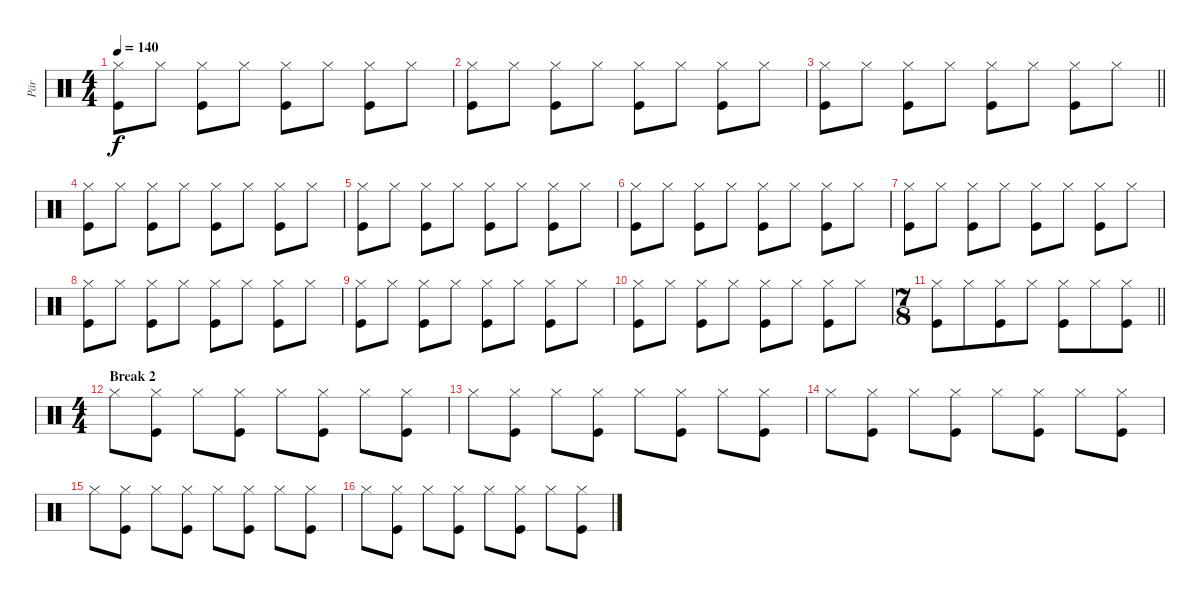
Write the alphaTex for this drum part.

\track ("Pär" "Pär") {instrument percussion}
\staff {score}
\articulation defaults
\ts (4 4)
\tempo 140
\clef neutral
\ks c
("Hi-Hat (closed)" "Kick (hit)").8{dy f} "Hi-Hat (closed)".8 ("Hi-Hat (closed)" "Kick (hit)").8 "Hi-Hat (closed)".8 ("Hi-Hat (closed)" "Kick (hit)").8 "Hi-Hat (closed)".8 ("Hi-Hat (closed)" "Kick (hit)").8 "Hi-Hat (closed)".8 |
("Hi-Hat (closed)" "Kick (hit)").8 "Hi-Hat (closed)".8 ("Hi-Hat (closed)" "Kick (hit)").8 "Hi-Hat (closed)".8 ("Hi-Hat (closed)" "Kick (hit)").8 "Hi-Hat (closed)".8 ("Hi-Hat (closed)" "Kick (hit)").8 "Hi-Hat (closed)".8 |
\barLineRight lightlight
("Hi-Hat (closed)" "Kick (hit)").8 "Hi-Hat (closed)".8 ("Hi-Hat (closed)" "Kick (hit)").8 "Hi-Hat (closed)".8 ("Hi-Hat (closed)" "Kick (hit)").8 "Hi-Hat (closed)".8 ("Hi-Hat (closed)" "Kick (hit)").8 "Hi-Hat (closed)".8 |
("Hi-Hat (closed)" "Kick (hit)").8 "Hi-Hat (closed)".8 ("Hi-Hat (closed)" "Kick (hit)").8 "Hi-Hat (closed)".8 ("Hi-Hat (closed)" "Kick (hit)").8 "Hi-Hat (closed)".8 ("Hi-Hat (closed)" "Kick (hit)").8 "Hi-Hat (closed)".8 |
("Hi-Hat (closed)" "Kick (hit)").8 "Hi-Hat (closed)".8 ("Hi-Hat (closed)" "Kick (hit)").8 "Hi-Hat (closed)".8 ("Hi-Hat (closed)" "Kick (hit)").8 "Hi-Hat (closed)".8 ("Hi-Hat (closed)" "Kick (hit)").8 "Hi-Hat (closed)".8 |
("Hi-Hat (closed)" "Kick (hit)").8 "Hi-Hat (closed)".8 ("Hi-Hat (closed)" "Kick (hit)").8 "Hi-Hat (closed)".8 ("Hi-Hat (closed)" "Kick (hit)").8 "Hi-Hat (closed)".8 ("Hi-Hat (closed)" "Kick (hit)").8 "Hi-Hat (closed)".8 |
("Hi-Hat (closed)" "Kick (hit)").8 "Hi-Hat (closed)".8 ("Hi-Hat (closed)" "Kick (hit)").8 "Hi-Hat (closed)".8 ("Hi-Hat (closed)" "Kick (hit)").8 "Hi-Hat (closed)".8 ("Hi-Hat (closed)" "Kick (hit)").8 "Hi-Hat (closed)".8 |
("Hi-Hat (closed)" "Kick (hit)").8 "Hi-Hat (closed)".8 ("Hi-Hat (closed)" "Kick (hit)").8 "Hi-Hat (closed)".8 ("Hi-Hat (closed)" "Kick (hit)").8 "Hi-Hat (closed)".8 ("Hi-Hat (closed)" "Kick (hit)").8 "Hi-Hat (closed)".8 |
("Hi-Hat (closed)" "Kick (hit)").8 "Hi-Hat (closed)".8 ("Hi-Hat (closed)" "Kick (hit)").8 "Hi-Hat (closed)".8 ("Hi-Hat (closed)" "Kick (hit)").8 "Hi-Hat (closed)".8 ("Hi-Hat (closed)" "Kick (hit)").8 "Hi-Hat (closed)".8 |
("Hi-Hat (closed)" "Kick (hit)").8 "Hi-Hat (closed)".8 ("Hi-Hat (closed)" "Kick (hit)").8 "Hi-Hat (closed)".8 ("Hi-Hat (closed)" "Kick (hit)").8 "Hi-Hat (closed)".8 ("Hi-Hat (closed)" "Kick (hit)").8 "Hi-Hat (closed)".8 |
\ts (7 8)
\barLineRight lightlight
("Hi-Hat (closed)" "Kick (hit)").8 "Hi-Hat (closed)".8 ("Hi-Hat (closed)" "Kick (hit)").8 "Hi-Hat (closed)".8 ("Hi-Hat (closed)" "Kick (hit)").8 "Hi-Hat (closed)".8 ("Hi-Hat (closed)" "Kick (hit)").8 |
\ts (4 4)
\section ("" "Break 2")
"Hi-Hat (closed)".8 ("Hi-Hat (closed)" "Kick (hit)").8 "Hi-Hat (closed)".8 ("Hi-Hat (closed)" "Kick (hit)").8 "Hi-Hat (closed)".8 ("Hi-Hat (closed)" "Kick (hit)").8 "Hi-Hat (closed)".8 ("Hi-Hat (closed)" "Kick (hit)").8 |
"Hi-Hat (closed)".8 ("Hi-Hat (closed)" "Kick (hit)").8 "Hi-Hat (closed)".8 ("Hi-Hat (closed)" "Kick (hit)").8 "Hi-Hat (closed)".8 ("Hi-Hat (closed)" "Kick (hit)").8 "Hi-Hat (closed)".8 ("Hi-Hat (closed)" "Kick (hit)").8 |
"Hi-Hat (closed)".8 ("Hi-Hat (closed)" "Kick (hit)").8 "Hi-Hat (closed)".8 ("Hi-Hat (closed)" "Kick (hit)").8 "Hi-Hat (closed)".8 ("Hi-Hat (closed)" "Kick (hit)").8 "Hi-Hat (closed)".8 ("Hi-Hat (closed)" "Kick (hit)").8 |
"Hi-Hat (closed)".8 ("Hi-Hat (closed)" "Kick (hit)").8 "Hi-Hat (closed)".8 ("Hi-Hat (closed)" "Kick (hit)").8 "Hi-Hat (closed)".8 ("Hi-Hat (closed)" "Kick (hit)").8 "Hi-Hat (closed)".8 ("Hi-Hat (closed)" "Kick (hit)").8 |
"Hi-Hat (closed)".8 ("Hi-Hat (closed)" "Kick (hit)").8 "Hi-Hat (closed)".8 ("Hi-Hat (closed)" "Kick (hit)").8 "Hi-Hat (closed)".8 ("Hi-Hat (closed)" "Kick (hit)").8 "Hi-Hat (closed)".8 ("Hi-Hat (closed)" "Kick (hit)").8
